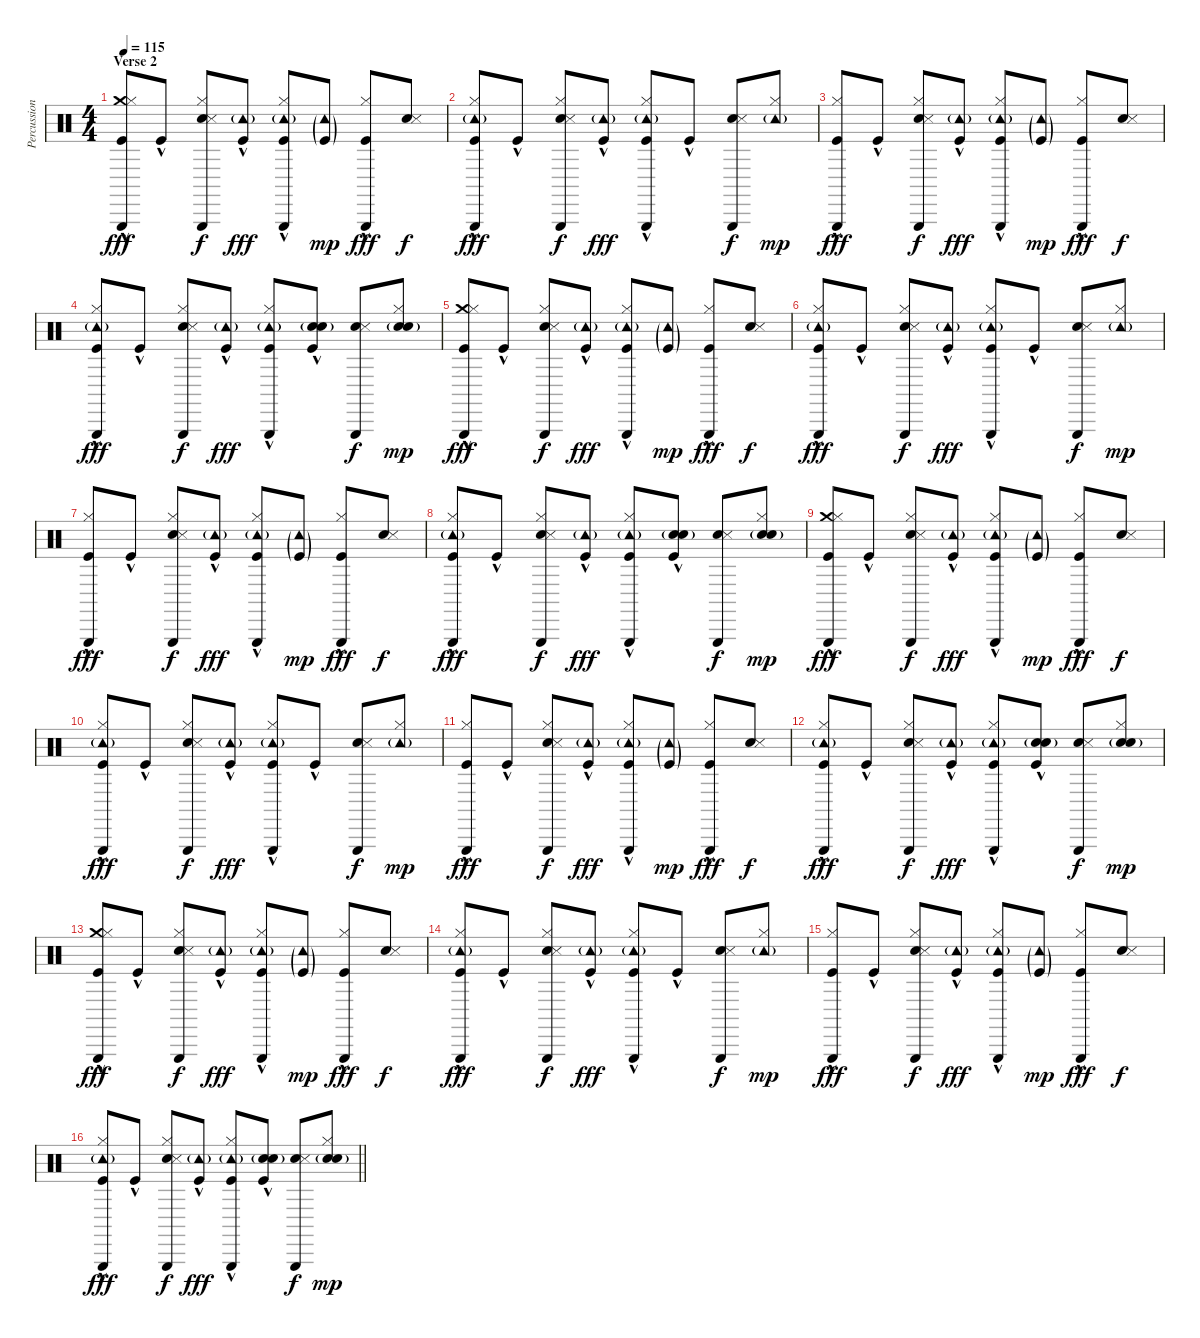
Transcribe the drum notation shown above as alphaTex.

\track ("Percussion" "Percussion") {instrument percussion}
\staff {score}
\articulation defaults
\ts (4 4)
\section ("" "Verse 2")
\tempo 115
\clef neutral
\ks c
("Triangle (hit)" "Crash medium (hit)" "Hi-Hat (closed)" "Kick (hit)"{hac}).8{dy fff} "Kick (hit)"{hac}.8 ("Hand Clap (hit)" "Snare (side stick) 3" "Hi-Hat (closed)" "Triangle (hit)").8{dy f} ("Tambourine (hit)"{g} "Kick (hit)"{hac}).8{dy fff} ("Triangle (hit)" "Hi-Hat (closed)" "Tambourine (hit)"{g} "Kick (hit)"{hac}).8 ("Tambourine (hit)"{g} "Kick (hit)"{g}).8{dy mp} ("Triangle (hit)" "Hi-Hat (closed)" "Kick (hit)"{hac}).8{dy fff} ("Hand Clap (hit)" "Snare (side stick) 3").8{dy f} |
("Triangle (hit)" "Hi-Hat (closed)" "Tambourine (hit)"{g} "Kick (hit)"{hac}).8{dy fff} "Kick (hit)"{hac}.8 ("Hand Clap (hit)" "Snare (side stick) 3" "Hi-Hat (closed)" "Triangle (hit)").8{dy f} ("Tambourine (hit)"{g} "Kick (hit)"{hac}).8{dy fff} ("Triangle (hit)" "Hi-Hat (closed)" "Tambourine (hit)"{g} "Kick (hit)"{hac}).8 "Kick (hit)"{hac}.8 ("Hand Clap (hit)" "Snare (side stick) 3" "Triangle (hit)").8{dy f} ("Hi-Hat (closed)" "Tambourine (hit)"{g}).8{dy mp} |
("Triangle (hit)" "Hi-Hat (closed)" "Kick (hit)"{hac}).8{dy fff} "Kick (hit)"{hac}.8 ("Hand Clap (hit)" "Snare (side stick) 3" "Hi-Hat (closed)" "Triangle (hit)").8{dy f} ("Tambourine (hit)"{g} "Kick (hit)"{hac}).8{dy fff} ("Triangle (hit)" "Hi-Hat (closed)" "Tambourine (hit)"{g} "Kick (hit)"{hac}).8 ("Tambourine (hit)"{g} "Kick (hit)"{g}).8{dy mp} ("Triangle (hit)" "Hi-Hat (closed)" "Kick (hit)"{hac}).8{dy fff} ("Hand Clap (hit)" "Snare (side stick) 3").8{dy f} |
("Triangle (hit)" "Hi-Hat (closed)" "Tambourine (hit)"{g} "Kick (hit)"{hac}).8{dy fff} "Kick (hit)"{hac}.8 ("Hand Clap (hit)" "Snare (side stick) 3" "Hi-Hat (closed)" "Triangle (hit)").8{dy f} ("Tambourine (hit)"{g} "Kick (hit)"{hac}).8{dy fff} ("Triangle (hit)" "Hi-Hat (closed)" "Tambourine (hit)"{g} "Kick (hit)"{hac}).8 ("Snare (hit) 2" "Electric Snare (hit)"{g} "Kick (hit)"{hac}).8 ("Hand Clap (hit)" "Snare (side stick) 3" "Triangle (hit)").8{dy f} ("Hi-Hat (closed)" "Snare (hit) 2" "Electric Snare (hit)"{g}).8{dy mp} |
("Triangle (hit)" "Crash medium (hit)" "Hi-Hat (closed)" "Kick (hit)"{hac}).8{dy fff} "Kick (hit)"{hac}.8 ("Hand Clap (hit)" "Snare (side stick) 3" "Hi-Hat (closed)" "Triangle (hit)").8{dy f} ("Tambourine (hit)"{g} "Kick (hit)"{hac}).8{dy fff} ("Triangle (hit)" "Hi-Hat (closed)" "Tambourine (hit)"{g} "Kick (hit)"{hac}).8 ("Tambourine (hit)"{g} "Kick (hit)"{g}).8{dy mp} ("Triangle (hit)" "Hi-Hat (closed)" "Kick (hit)"{hac}).8{dy fff} ("Hand Clap (hit)" "Snare (side stick) 3").8{dy f} |
("Triangle (hit)" "Hi-Hat (closed)" "Tambourine (hit)"{g} "Kick (hit)"{hac}).8{dy fff} "Kick (hit)"{hac}.8 ("Hand Clap (hit)" "Snare (side stick) 3" "Hi-Hat (closed)" "Triangle (hit)").8{dy f} ("Tambourine (hit)"{g} "Kick (hit)"{hac}).8{dy fff} ("Triangle (hit)" "Hi-Hat (closed)" "Tambourine (hit)"{g} "Kick (hit)"{hac}).8 "Kick (hit)"{hac}.8 ("Hand Clap (hit)" "Snare (side stick) 3" "Triangle (hit)").8{dy f} ("Hi-Hat (closed)" "Tambourine (hit)"{g}).8{dy mp} |
("Triangle (hit)" "Hi-Hat (closed)" "Kick (hit)"{hac}).8{dy fff} "Kick (hit)"{hac}.8 ("Hand Clap (hit)" "Snare (side stick) 3" "Hi-Hat (closed)" "Triangle (hit)").8{dy f} ("Tambourine (hit)"{g} "Kick (hit)"{hac}).8{dy fff} ("Triangle (hit)" "Hi-Hat (closed)" "Tambourine (hit)"{g} "Kick (hit)"{hac}).8 ("Tambourine (hit)"{g} "Kick (hit)"{g}).8{dy mp} ("Triangle (hit)" "Hi-Hat (closed)" "Kick (hit)"{hac}).8{dy fff} ("Hand Clap (hit)" "Snare (side stick) 3").8{dy f} |
("Triangle (hit)" "Hi-Hat (closed)" "Tambourine (hit)"{g} "Kick (hit)"{hac}).8{dy fff} "Kick (hit)"{hac}.8 ("Hand Clap (hit)" "Snare (side stick) 3" "Hi-Hat (closed)" "Triangle (hit)").8{dy f} ("Tambourine (hit)"{g} "Kick (hit)"{hac}).8{dy fff} ("Triangle (hit)" "Hi-Hat (closed)" "Tambourine (hit)"{g} "Kick (hit)"{hac}).8 ("Snare (hit) 2" "Electric Snare (hit)"{g} "Kick (hit)"{hac}).8 ("Hand Clap (hit)" "Snare (side stick) 3" "Triangle (hit)").8{dy f} ("Hi-Hat (closed)" "Snare (hit) 2" "Electric Snare (hit)"{g}).8{dy mp} |
("Triangle (hit)" "Crash medium (hit)" "Hi-Hat (closed)" "Kick (hit)"{hac}).8{dy fff} "Kick (hit)"{hac}.8 ("Hand Clap (hit)" "Snare (side stick) 3" "Hi-Hat (closed)" "Triangle (hit)").8{dy f} ("Tambourine (hit)"{g} "Kick (hit)"{hac}).8{dy fff} ("Triangle (hit)" "Hi-Hat (closed)" "Tambourine (hit)"{g} "Kick (hit)"{hac}).8 ("Tambourine (hit)"{g} "Kick (hit)"{g}).8{dy mp} ("Triangle (hit)" "Hi-Hat (closed)" "Kick (hit)"{hac}).8{dy fff} ("Hand Clap (hit)" "Snare (side stick) 3").8{dy f} |
("Triangle (hit)" "Hi-Hat (closed)" "Tambourine (hit)"{g} "Kick (hit)"{hac}).8{dy fff} "Kick (hit)"{hac}.8 ("Hand Clap (hit)" "Snare (side stick) 3" "Hi-Hat (closed)" "Triangle (hit)").8{dy f} ("Tambourine (hit)"{g} "Kick (hit)"{hac}).8{dy fff} ("Triangle (hit)" "Hi-Hat (closed)" "Tambourine (hit)"{g} "Kick (hit)"{hac}).8 "Kick (hit)"{hac}.8 ("Hand Clap (hit)" "Snare (side stick) 3" "Triangle (hit)").8{dy f} ("Hi-Hat (closed)" "Tambourine (hit)"{g}).8{dy mp} |
("Triangle (hit)" "Hi-Hat (closed)" "Kick (hit)"{hac}).8{dy fff} "Kick (hit)"{hac}.8 ("Hand Clap (hit)" "Snare (side stick) 3" "Hi-Hat (closed)" "Triangle (hit)").8{dy f} ("Tambourine (hit)"{g} "Kick (hit)"{hac}).8{dy fff} ("Triangle (hit)" "Hi-Hat (closed)" "Tambourine (hit)"{g} "Kick (hit)"{hac}).8 ("Tambourine (hit)"{g} "Kick (hit)"{g}).8{dy mp} ("Triangle (hit)" "Hi-Hat (closed)" "Kick (hit)"{hac}).8{dy fff} ("Hand Clap (hit)" "Snare (side stick) 3").8{dy f} |
("Triangle (hit)" "Hi-Hat (closed)" "Tambourine (hit)"{g} "Kick (hit)"{hac}).8{dy fff} "Kick (hit)"{hac}.8 ("Hand Clap (hit)" "Snare (side stick) 3" "Hi-Hat (closed)" "Triangle (hit)").8{dy f} ("Tambourine (hit)"{g} "Kick (hit)"{hac}).8{dy fff} ("Triangle (hit)" "Hi-Hat (closed)" "Tambourine (hit)"{g} "Kick (hit)"{hac}).8 ("Snare (hit) 2" "Electric Snare (hit)"{g} "Kick (hit)"{hac}).8 ("Hand Clap (hit)" "Snare (side stick) 3" "Triangle (hit)").8{dy f} ("Hi-Hat (closed)" "Snare (hit) 2" "Electric Snare (hit)"{g}).8{dy mp} |
("Triangle (hit)" "Crash medium (hit)" "Hi-Hat (closed)" "Kick (hit)"{hac}).8{dy fff} "Kick (hit)"{hac}.8 ("Hand Clap (hit)" "Snare (side stick) 3" "Hi-Hat (closed)" "Triangle (hit)").8{dy f} ("Tambourine (hit)"{g} "Kick (hit)"{hac}).8{dy fff} ("Triangle (hit)" "Hi-Hat (closed)" "Tambourine (hit)"{g} "Kick (hit)"{hac}).8 ("Tambourine (hit)"{g} "Kick (hit)"{g}).8{dy mp} ("Triangle (hit)" "Hi-Hat (closed)" "Kick (hit)"{hac}).8{dy fff} ("Hand Clap (hit)" "Snare (side stick) 3").8{dy f} |
("Triangle (hit)" "Hi-Hat (closed)" "Tambourine (hit)"{g} "Kick (hit)"{hac}).8{dy fff} "Kick (hit)"{hac}.8 ("Hand Clap (hit)" "Snare (side stick) 3" "Hi-Hat (closed)" "Triangle (hit)").8{dy f} ("Tambourine (hit)"{g} "Kick (hit)"{hac}).8{dy fff} ("Triangle (hit)" "Hi-Hat (closed)" "Tambourine (hit)"{g} "Kick (hit)"{hac}).8 "Kick (hit)"{hac}.8 ("Hand Clap (hit)" "Snare (side stick) 3" "Triangle (hit)").8{dy f} ("Hi-Hat (closed)" "Tambourine (hit)"{g}).8{dy mp} |
("Triangle (hit)" "Hi-Hat (closed)" "Kick (hit)"{hac}).8{dy fff} "Kick (hit)"{hac}.8 ("Hand Clap (hit)" "Snare (side stick) 3" "Hi-Hat (closed)" "Triangle (hit)").8{dy f} ("Tambourine (hit)"{g} "Kick (hit)"{hac}).8{dy fff} ("Triangle (hit)" "Hi-Hat (closed)" "Tambourine (hit)"{g} "Kick (hit)"{hac}).8 ("Tambourine (hit)"{g} "Kick (hit)"{g}).8{dy mp} ("Triangle (hit)" "Hi-Hat (closed)" "Kick (hit)"{hac}).8{dy fff} ("Hand Clap (hit)" "Snare (side stick) 3").8{dy f} |
\barLineRight lightlight
("Triangle (hit)" "Hi-Hat (closed)" "Tambourine (hit)"{g} "Kick (hit)"{hac}).8{dy fff} "Kick (hit)"{hac}.8 ("Hand Clap (hit)" "Snare (side stick) 3" "Hi-Hat (closed)" "Triangle (hit)").8{dy f} ("Tambourine (hit)"{g} "Kick (hit)"{hac}).8{dy fff} ("Triangle (hit)" "Hi-Hat (closed)" "Tambourine (hit)"{g} "Kick (hit)"{hac}).8 ("Snare (hit) 2" "Electric Snare (hit)"{g} "Kick (hit)"{hac}).8 ("Hand Clap (hit)" "Snare (side stick) 3" "Triangle (hit)").8{dy f} ("Hi-Hat (closed)" "Snare (hit) 2" "Electric Snare (hit)"{g}).8{dy mp}
